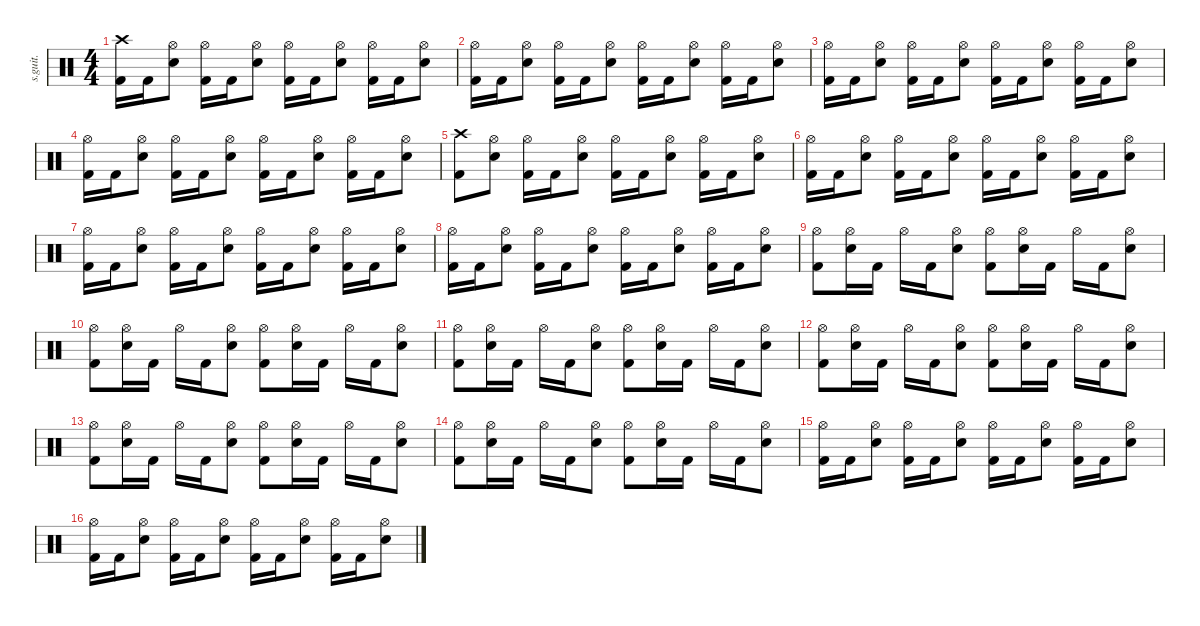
\defaultSystemsLayout 4
\hideDynamics
\bracketExtendMode nobrackets
\track ("" "s.guit.") {instrument percussion}
\staff {score}
\articulation defaults
\ts (4 4)
\tempo (160 hide)
\clef neutral
\ks c
("Crash high (hit)" "Kick (hit) 2").16{dy f} "Kick (hit) 2".16 ("Hi-Hat (open)" "Snare (hit) 2").8 ("Hi-Hat (open)" "Kick (hit) 2").16 "Kick (hit) 2".16 ("Hi-Hat (open)" "Snare (hit) 2").8 ("Hi-Hat (open)" "Kick (hit) 2").16 "Kick (hit) 2".16 ("Hi-Hat (open)" "Snare (hit) 2").8 ("Hi-Hat (open)" "Kick (hit) 2").16 "Kick (hit) 2".16 ("Hi-Hat (open)" "Snare (hit) 2").8 |
("Hi-Hat (open)" "Kick (hit) 2").16 "Kick (hit) 2".16 ("Hi-Hat (open)" "Snare (hit) 2").8 ("Hi-Hat (open)" "Kick (hit) 2").16 "Kick (hit) 2".16 ("Hi-Hat (open)" "Snare (hit) 2").8 ("Hi-Hat (open)" "Kick (hit) 2").16 "Kick (hit) 2".16 ("Hi-Hat (open)" "Snare (hit) 2").8 ("Hi-Hat (open)" "Kick (hit) 2").16 "Kick (hit) 2".16 ("Hi-Hat (open)" "Snare (hit) 2").8 |
("Hi-Hat (open)" "Kick (hit) 2").16 "Kick (hit) 2".16 ("Hi-Hat (open)" "Snare (hit) 2").8 ("Hi-Hat (open)" "Kick (hit) 2").16 "Kick (hit) 2".16 ("Hi-Hat (open)" "Snare (hit) 2").8 ("Hi-Hat (open)" "Kick (hit) 2").16 "Kick (hit) 2".16 ("Hi-Hat (open)" "Snare (hit) 2").8 ("Hi-Hat (open)" "Kick (hit) 2").16 "Kick (hit) 2".16 ("Hi-Hat (open)" "Snare (hit) 2").8 |
("Hi-Hat (open)" "Kick (hit) 2").16 "Kick (hit) 2".16 ("Hi-Hat (open)" "Snare (hit) 2").8 ("Hi-Hat (open)" "Kick (hit) 2").16 "Kick (hit) 2".16 ("Hi-Hat (open)" "Snare (hit) 2").8 ("Hi-Hat (open)" "Kick (hit) 2").16 "Kick (hit) 2".16 ("Hi-Hat (open)" "Snare (hit) 2").8 ("Hi-Hat (open)" "Kick (hit) 2").16 "Kick (hit) 2".16 ("Hi-Hat (open)" "Snare (hit) 2").8 |
("Crash high (hit)" "Kick (hit) 2").8 ("Hi-Hat (open)" "Snare (hit) 2").8 ("Hi-Hat (open)" "Kick (hit) 2").16 "Kick (hit) 2".16 ("Hi-Hat (open)" "Snare (hit) 2").8 ("Hi-Hat (open)" "Kick (hit) 2").16 "Kick (hit) 2".16 ("Hi-Hat (open)" "Snare (hit) 2").8 ("Hi-Hat (open)" "Kick (hit) 2").16 "Kick (hit) 2".16 ("Hi-Hat (open)" "Snare (hit) 2").8 |
("Hi-Hat (open)" "Kick (hit) 2").16 "Kick (hit) 2".16 ("Hi-Hat (open)" "Snare (hit) 2").8 ("Hi-Hat (open)" "Kick (hit) 2").16 "Kick (hit) 2".16 ("Hi-Hat (open)" "Snare (hit) 2").8 ("Hi-Hat (open)" "Kick (hit) 2").16 "Kick (hit) 2".16 ("Hi-Hat (open)" "Snare (hit) 2").8 ("Hi-Hat (open)" "Kick (hit) 2").16 "Kick (hit) 2".16 ("Hi-Hat (open)" "Snare (hit) 2").8 |
("Hi-Hat (open)" "Kick (hit) 2").16 "Kick (hit) 2".16 ("Hi-Hat (open)" "Snare (hit) 2").8 ("Hi-Hat (open)" "Kick (hit) 2").16 "Kick (hit) 2".16 ("Hi-Hat (open)" "Snare (hit) 2").8 ("Hi-Hat (open)" "Kick (hit) 2").16 "Kick (hit) 2".16 ("Hi-Hat (open)" "Snare (hit) 2").8 ("Hi-Hat (open)" "Kick (hit) 2").16 "Kick (hit) 2".16 ("Hi-Hat (open)" "Snare (hit) 2").8 |
("Hi-Hat (open)" "Kick (hit) 2").16 "Kick (hit) 2".16 ("Hi-Hat (open)" "Snare (hit) 2").8 ("Hi-Hat (open)" "Kick (hit) 2").16 "Kick (hit) 2".16 ("Hi-Hat (open)" "Snare (hit) 2").8 ("Hi-Hat (open)" "Kick (hit) 2").16 "Kick (hit) 2".16 ("Hi-Hat (open)" "Snare (hit) 2").8 ("Hi-Hat (open)" "Kick (hit) 2").16 "Kick (hit) 2".16 ("Hi-Hat (open)" "Snare (hit) 2").8 |
("Hi-Hat (open)" "Kick (hit) 2").8 ("Hi-Hat (open)" "Snare (hit) 2").16 "Kick (hit) 2".16 "Hi-Hat (open)".16 "Kick (hit) 2".16 ("Hi-Hat (open)" "Snare (hit) 2").8 ("Hi-Hat (open)" "Kick (hit) 2").8 ("Hi-Hat (open)" "Snare (hit) 2").16 "Kick (hit) 2".16 "Hi-Hat (open)".16 "Kick (hit) 2".16 ("Hi-Hat (open)" "Snare (hit) 2").8 |
("Hi-Hat (open)" "Kick (hit) 2").8 ("Hi-Hat (open)" "Snare (hit) 2").16 "Kick (hit) 2".16 "Hi-Hat (open)".16 "Kick (hit) 2".16 ("Hi-Hat (open)" "Snare (hit) 2").8 ("Hi-Hat (open)" "Kick (hit) 2").8 ("Hi-Hat (open)" "Snare (hit) 2").16 "Kick (hit) 2".16 "Hi-Hat (open)".16 "Kick (hit) 2".16 ("Hi-Hat (open)" "Snare (hit) 2").8 |
("Hi-Hat (open)" "Kick (hit) 2").8 ("Hi-Hat (open)" "Snare (hit) 2").16 "Kick (hit) 2".16 "Hi-Hat (open)".16 "Kick (hit) 2".16 ("Hi-Hat (open)" "Snare (hit) 2").8 ("Hi-Hat (open)" "Kick (hit) 2").8 ("Hi-Hat (open)" "Snare (hit) 2").16 "Kick (hit) 2".16 "Hi-Hat (open)".16 "Kick (hit) 2".16 ("Hi-Hat (open)" "Snare (hit) 2").8 |
("Hi-Hat (open)" "Kick (hit) 2").8 ("Hi-Hat (open)" "Snare (hit) 2").16 "Kick (hit) 2".16 "Hi-Hat (open)".16 "Kick (hit) 2".16 ("Hi-Hat (open)" "Snare (hit) 2").8 ("Hi-Hat (open)" "Kick (hit) 2").8 ("Hi-Hat (open)" "Snare (hit) 2").16 "Kick (hit) 2".16 "Hi-Hat (open)".16 "Kick (hit) 2".16 ("Hi-Hat (open)" "Snare (hit) 2").8 |
("Hi-Hat (open)" "Kick (hit) 2").8 ("Hi-Hat (open)" "Snare (hit) 2").16 "Kick (hit) 2".16 "Hi-Hat (open)".16 "Kick (hit) 2".16 ("Hi-Hat (open)" "Snare (hit) 2").8 ("Hi-Hat (open)" "Kick (hit) 2").8 ("Hi-Hat (open)" "Snare (hit) 2").16 "Kick (hit) 2".16 "Hi-Hat (open)".16 "Kick (hit) 2".16 ("Hi-Hat (open)" "Snare (hit) 2").8 |
("Hi-Hat (open)" "Kick (hit) 2").8 ("Hi-Hat (open)" "Snare (hit) 2").16 "Kick (hit) 2".16 "Hi-Hat (open)".16 "Kick (hit) 2".16 ("Hi-Hat (open)" "Snare (hit) 2").8 ("Hi-Hat (open)" "Kick (hit) 2").8 ("Hi-Hat (open)" "Snare (hit) 2").16 "Kick (hit) 2".16 "Hi-Hat (open)".16 "Kick (hit) 2".16 ("Hi-Hat (open)" "Snare (hit) 2").8 |
("Hi-Hat (open)" "Kick (hit) 2").16 "Kick (hit) 2".16 ("Hi-Hat (open)" "Snare (hit) 2").8 ("Hi-Hat (open)" "Kick (hit) 2").16 "Kick (hit) 2".16 ("Hi-Hat (open)" "Snare (hit) 2").8 ("Hi-Hat (open)" "Kick (hit) 2").16 "Kick (hit) 2".16 ("Hi-Hat (open)" "Snare (hit) 2").8 ("Hi-Hat (open)" "Kick (hit) 2").16 "Kick (hit) 2".16 ("Hi-Hat (open)" "Snare (hit) 2").8 |
("Hi-Hat (open)" "Kick (hit) 2").16 "Kick (hit) 2".16 ("Hi-Hat (open)" "Snare (hit) 2").8 ("Hi-Hat (open)" "Kick (hit) 2").16 "Kick (hit) 2".16 ("Hi-Hat (open)" "Snare (hit) 2").8 ("Hi-Hat (open)" "Kick (hit) 2").16 "Kick (hit) 2".16 ("Hi-Hat (open)" "Snare (hit) 2").8 ("Hi-Hat (open)" "Kick (hit) 2").16 "Kick (hit) 2".16 ("Hi-Hat (open)" "Snare (hit) 2").8
